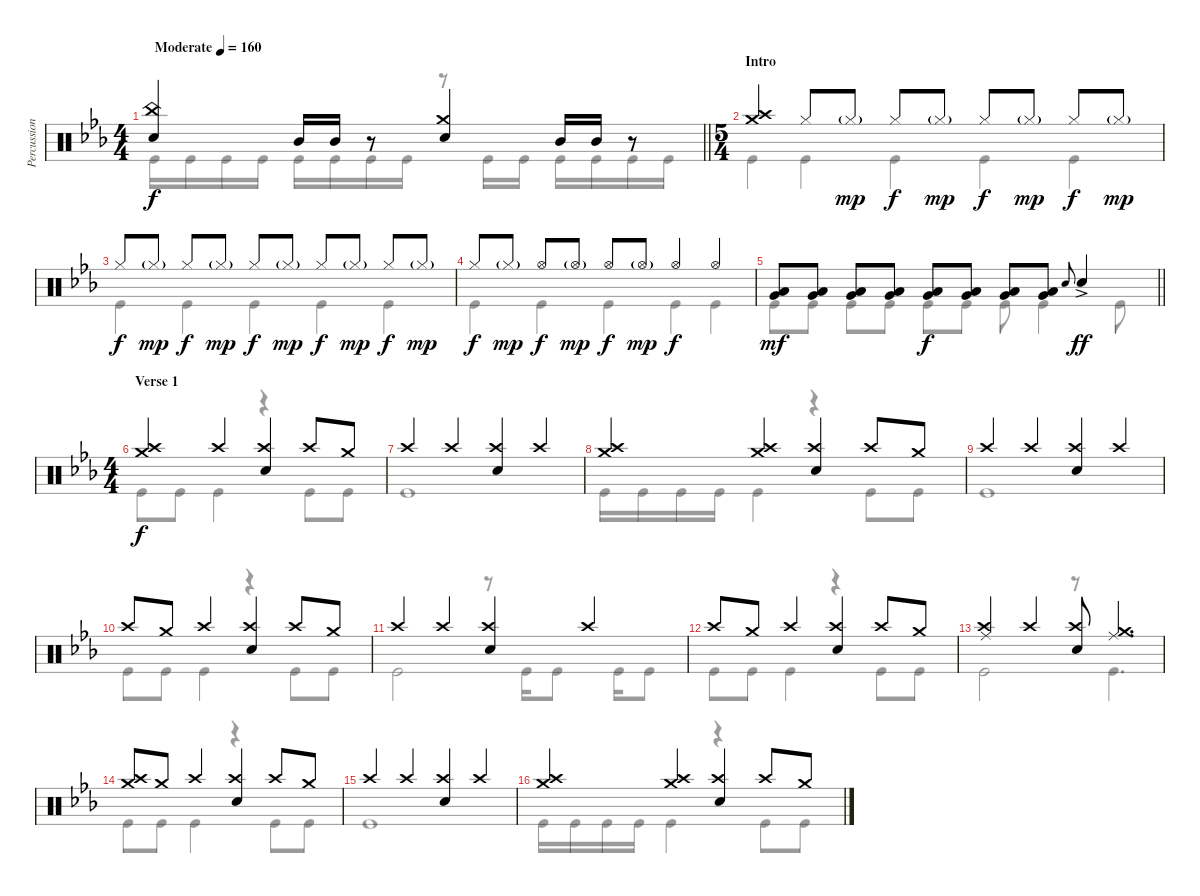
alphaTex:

\track ("Percussion" "Percussion") {instrument percussion}
\staff {score}
\articulation defaults
\voice
\ts (4 4)
\tempo (160 "Moderate")
\clef neutral
\barLineRight lightlight
\ks cminor
("China (hit)" "Electric Snare (hit)").4{dy f} "Mid Tom (hit)".16 "Mid Tom (hit)".16 r.8 ("Crash medium (hit)" "Electric Snare (hit)").4 "Mid Tom (hit)".16 "Mid Tom (hit)".16 r.8 |
\ts (5 4)
\section ("" "Intro")
("Crash medium (hit)" "Crash high (hit)").4 "Hi-Hat (closed)".8 "Hi-Hat (closed)"{g}.8{dy mp} "Hi-Hat (closed)".8{dy f} "Hi-Hat (closed)"{g}.8{dy mp} "Hi-Hat (closed)".8{dy f} "Hi-Hat (closed)"{g}.8{dy mp} "Hi-Hat (closed)".8{dy f} "Hi-Hat (closed)"{g}.8{dy mp} |
"Hi-Hat (closed)".8{dy f} "Hi-Hat (closed)"{g}.8{dy mp} "Hi-Hat (closed)".8{dy f} "Hi-Hat (closed)"{g}.8{dy mp} "Hi-Hat (closed)".8{dy f} "Hi-Hat (closed)"{g}.8{dy mp} "Hi-Hat (closed)".8{dy f} "Hi-Hat (closed)"{g}.8{dy mp} "Hi-Hat (closed)".8{dy f} "Hi-Hat (closed)"{g}.8{dy mp} |
"Hi-Hat (closed)".8{dy f} "Hi-Hat (closed)"{g}.8{dy mp} "Hi-Hat (open)".8{dy f} "Hi-Hat (open)"{g}.8{dy mp} "Hi-Hat (open)".8{dy f} "Hi-Hat (open)"{g}.8{dy mp} "Hi-Hat (open)".4{dy f} "Hi-Hat (open)".4 |
\barLineRight lightlight
("Low Tom (hit)" "Very Low Tom (hit)").8{dy mf} ("Low Tom (hit)" "Very Low Tom (hit)").8 ("Low Tom (hit)" "Very Low Tom (hit)").8 ("Low Tom (hit)" "Very Low Tom (hit)").8 ("Low Tom (hit)" "Very Low Tom (hit)").8{dy f} ("Low Tom (hit)" "Very Low Tom (hit)").8 ("Low Tom (hit)" "Very Low Tom (hit)").8 ("Low Tom (hit)" "Very Low Tom (hit)").8 "Electric Snare (hit)".8{gr onbeat} "Electric Snare (hit)"{ac}.4{dy ff} |
\ts (4 4)
\section ("" "Verse 1")
("Crash medium (hit)" "Crash high (hit)").4{dy f} "Crash high (hit)".4 ("Crash high (hit)" "Electric Snare (hit)").4 "Crash high (hit)".8 "Crash medium (hit)".8 |
"Crash high (hit)".4 "Crash high (hit)".4 ("Crash high (hit)" "Electric Snare (hit)").4 "Crash high (hit)".4 |
("Crash medium (hit)" "Crash high (hit)").4 ("Crash medium (hit)" "Crash high (hit)").4 ("Crash high (hit)" "Electric Snare (hit)").4 "Crash high (hit)".8 "Crash medium (hit)".8 |
"Crash high (hit)".4 "Crash high (hit)".4 ("Crash high (hit)" "Electric Snare (hit)").4 "Crash high (hit)".4 |
"Crash high (hit)".8 "Crash medium (hit)".8 "Crash high (hit)".4 ("Crash high (hit)" "Electric Snare (hit)").4 "Crash high (hit)".8 "Crash medium (hit)".8 |
"Crash high (hit)".4 "Crash high (hit)".4 ("Crash high (hit)" "Electric Snare (hit)").4 "Crash high (hit)".4 |
"Crash high (hit)".8 "Crash medium (hit)".8 "Crash high (hit)".4 ("Crash high (hit)" "Electric Snare (hit)").4 "Crash high (hit)".8 "Crash medium (hit)".8 |
("Ride (middle)" "Crash high (hit)").4 "Crash high (hit)".4 ("Crash high (hit)" "Electric Snare (hit)").8 ("Crash medium (hit)" "Ride (middle)").4{d} |
("Crash medium (hit)" "Crash high (hit)").8 "Crash medium (hit)".8 "Crash high (hit)".4 ("Crash high (hit)" "Electric Snare (hit)").4 "Crash high (hit)".8 "Crash medium (hit)".8 |
"Crash high (hit)".4 "Crash high (hit)".4 ("Crash high (hit)" "Electric Snare (hit)").4 "Crash high (hit)".4 |
("Crash medium (hit)" "Crash high (hit)").4 ("Crash medium (hit)" "Crash high (hit)").4 ("Crash high (hit)" "Electric Snare (hit)").4 "Crash high (hit)".8 "Crash medium (hit)".8
\voice
\clef neutral
\ottava regular
\simile none
\barLineRight lightlight
\ks cminor "Kick (hit)".16{dy f} "Kick (hit)".16 "Kick (hit)".16 "Kick (hit)".16 "Kick (hit)".16 "Kick (hit)".16 "Kick (hit)".16 "Kick (hit)".16
r.8 "Kick (hit)".16 "Kick (hit)".16 "Kick (hit)".16 "Kick (hit)".16 "Kick (hit)".16 "Kick (hit)".16 |
"Kick (hit)".4 "Kick (hit)".4 "Kick (hit)".4 "Kick (hit)".4 "Kick (hit)".4 |
"Kick (hit)".4 "Kick (hit)".4 "Kick (hit)".4 "Kick (hit)".4 "Kick (hit)".4 |
"Kick (hit)".4 "Kick (hit)".4 "Kick (hit)".4 "Kick (hit)".4 "Kick (hit)".4 |
\barLineRight lightlight "Kick (hit)".8 "Kick (hit)".8 "Kick (hit)".8 "Kick (hit)".8 "Kick (hit)".8 "Kick (hit)".8 "Kick (hit)".8 "Kick (hit)".4 "Kick (hit)".8
|
"Kick (hit)".8 "Kick (hit)".8 "Kick (hit)".4 r.4 "Kick (hit)".8 "Kick (hit)".8 |
"Kick (hit)".1 |
"Kick (hit)".16 "Kick (hit)".16 "Kick (hit)".16 "Kick (hit)".16 "Kick (hit)".4 r.4 "Kick (hit)".8 "Kick (hit)".8 |
"Kick (hit)".1 |
"Kick (hit)".8 "Kick (hit)".8 "Kick (hit)".4 r.4 "Kick (hit)".8 "Kick (hit)".8 |
"Kick (hit)".2 r.8 "Kick (hit)".16 "Kick (hit)".8 "Kick (hit)".16 "Kick (hit)".8 |
"Kick (hit)".8 "Kick (hit)".8 "Kick (hit)".4 r.4 "Kick (hit)".8 "Kick (hit)".8 |
"Kick (hit)".2 r.8 "Kick (hit)".4{d} |
"Kick (hit)".8 "Kick (hit)".8 "Kick (hit)".4 r.4 "Kick (hit)".8 "Kick (hit)".8 |
"Kick (hit)".1 |
"Kick (hit)".16 "Kick (hit)".16 "Kick (hit)".16 "Kick (hit)".16 "Kick (hit)".4 r.4 "Kick (hit)".8 "Kick (hit)".8
